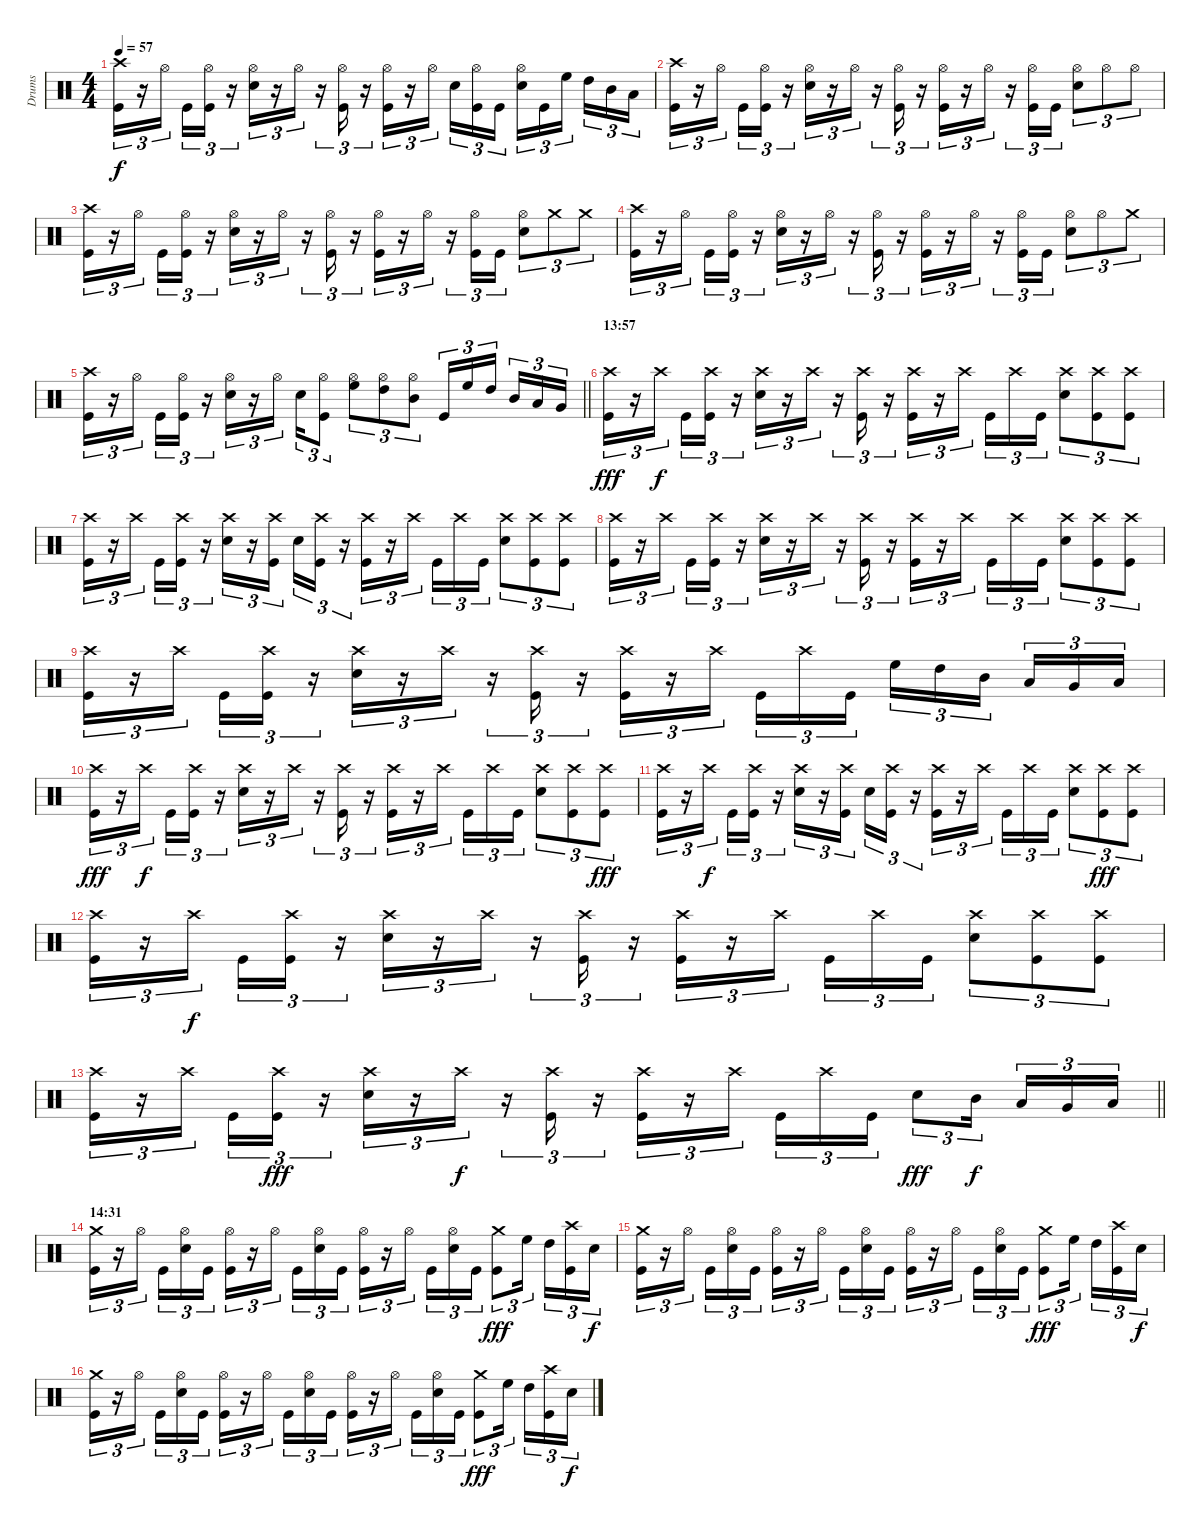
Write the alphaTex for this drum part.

\track ("Drums" "Drums") {instrument percussion}
\staff {score}
\articulation defaults
\ts (4 4)
\tempo 57
\clef neutral
\ks c
("Crash high (hit)" "Kick (hit)").16{tu (3 2) dy f} r.16{tu (3 2)} "Hi-Hat (open)".16{tu (3 2) beam splitsecondary} "Kick (hit)".16{tu (3 2)} ("Kick (hit)" "Hi-Hat (open)").16{tu (3 2)} r.16{tu (3 2)} ("Snare (hit) 2" "Hi-Hat (open)").16{tu (3 2)} r.16{tu (3 2)} "Hi-Hat (open)".16{tu (3 2)} r.16{tu (3 2)} ("Kick (hit)" "Hi-Hat (open)").16{tu (3 2)} r.16{tu (3 2)} ("Kick (hit)" "Hi-Hat (open)").16{tu (3 2)} r.16{tu (3 2)} "Hi-Hat (open)".16{tu (3 2) beam splitsecondary} "Snare (hit) 2".16{tu (3 2)} ("Hi-Hat (open)" "Kick (hit)").16{tu (3 2)} "Kick (hit)".16{tu (3 2)} ("Snare (hit) 2" "Hi-Hat (open)").16{tu (3 2)} "Kick (hit)".16{tu (3 2)} "High Floor Tom (hit)".16{tu (3 2) beam splitsecondary} "High Tom (hit)".16{tu (3 2)} "Mid Tom (hit)".16{tu (3 2)} "Low Tom (hit)".16{tu (3 2)} |
("Crash high (hit)" "Kick (hit)").16{tu (3 2)} r.16{tu (3 2)} "Hi-Hat (open)".16{tu (3 2) beam splitsecondary} "Kick (hit)".16{tu (3 2)} ("Kick (hit)" "Hi-Hat (open)").16{tu (3 2)} r.16{tu (3 2)} ("Snare (hit) 2" "Hi-Hat (open)").16{tu (3 2)} r.16{tu (3 2)} "Hi-Hat (open)".16{tu (3 2)} r.16{tu (3 2)} ("Kick (hit)" "Hi-Hat (open)").16{tu (3 2)} r.16{tu (3 2)} ("Kick (hit)" "Hi-Hat (open)").16{tu (3 2)} r.16{tu (3 2)} "Hi-Hat (open)".16{tu (3 2)} r.16{tu (3 2)} ("Hi-Hat (open)" "Kick (hit)").16{tu (3 2)} "Kick (hit)".16{tu (3 2)} ("Snare (hit) 2" "Hi-Hat (open)").8{tu (3 2)} "Hi-Hat (open)".8{tu (3 2)} "Hi-Hat (open)".8{tu (3 2)} |
("Crash high (hit)" "Kick (hit)").16{tu (3 2)} r.16{tu (3 2)} "Hi-Hat (open)".16{tu (3 2) beam splitsecondary} "Kick (hit)".16{tu (3 2)} ("Kick (hit)" "Hi-Hat (open)").16{tu (3 2)} r.16{tu (3 2)} ("Snare (hit) 2" "Hi-Hat (open)").16{tu (3 2)} r.16{tu (3 2)} "Hi-Hat (open)".16{tu (3 2)} r.16{tu (3 2)} ("Kick (hit)" "Hi-Hat (open)").16{tu (3 2)} r.16{tu (3 2)} ("Kick (hit)" "Hi-Hat (open)").16{tu (3 2)} r.16{tu (3 2)} "Hi-Hat (open)".16{tu (3 2)} r.16{tu (3 2)} ("Hi-Hat (open)" "Kick (hit)").16{tu (3 2)} "Kick (hit)".16{tu (3 2)} ("Snare (hit) 2" "Hi-Hat (open)").8{tu (3 2)} "Crash medium (hit)".8{tu (3 2)} "Crash medium (hit)".8{tu (3 2)} |
("Crash high (hit)" "Kick (hit)").16{tu (3 2)} r.16{tu (3 2)} "Hi-Hat (open)".16{tu (3 2) beam splitsecondary} "Kick (hit)".16{tu (3 2)} ("Kick (hit)" "Hi-Hat (open)").16{tu (3 2)} r.16{tu (3 2)} ("Snare (hit) 2" "Hi-Hat (open)").16{tu (3 2)} r.16{tu (3 2)} "Hi-Hat (open)".16{tu (3 2)} r.16{tu (3 2)} ("Kick (hit)" "Hi-Hat (open)").16{tu (3 2)} r.16{tu (3 2)} ("Kick (hit)" "Hi-Hat (open)").16{tu (3 2)} r.16{tu (3 2)} "Hi-Hat (open)".16{tu (3 2)} r.16{tu (3 2)} ("Hi-Hat (open)" "Kick (hit)").16{tu (3 2)} "Kick (hit)".16{tu (3 2)} ("Snare (hit) 2" "Hi-Hat (open)").8{tu (3 2)} "Hi-Hat (open)".8{tu (3 2)} "Crash medium (hit)".8{tu (3 2)} |
\barLineRight lightlight
("Crash high (hit)" "Kick (hit)").16{tu (3 2)} r.16{tu (3 2)} "Hi-Hat (open)".16{tu (3 2) beam splitsecondary} "Kick (hit)".16{tu (3 2)} ("Kick (hit)" "Hi-Hat (open)").16{tu (3 2)} r.16{tu (3 2)} ("Snare (hit) 2" "Hi-Hat (open)").16{tu (3 2)} r.16{tu (3 2)} "Hi-Hat (open)".16{tu (3 2) beam splitsecondary} "Snare (hit) 2".16{tu (3 2)} ("Kick (hit)" "Hi-Hat (open)").8{tu (3 2)} ("High Floor Tom (hit)" "Hi-Hat (open)").8{tu (3 2)} ("High Tom (hit)" "Hi-Hat (open)").8{tu (3 2)} ("Mid Tom (hit)" "Hi-Hat (open)").8{tu (3 2)} "Kick (hit)".16{tu (3 2)} "High Floor Tom (hit)".16{tu (3 2)} "High Tom (hit)".16{tu (3 2) beam splitsecondary} "Mid Tom (hit)".16{tu (3 2)} "Low Tom (hit)".16{tu (3 2)} "Very Low Tom (hit)".16{tu (3 2)} |
\section ("" "13:57")
("Crash high (hit)" "Kick (hit)").16{tu (3 2) dy fff} r.16{tu (3 2)} "Crash high (hit)".16{tu (3 2) dy f beam splitsecondary} "Kick (hit)".16{tu (3 2)} ("Kick (hit)" "Crash high (hit)").16{tu (3 2)} r.16{tu (3 2)} ("Snare (hit) 2" "Crash high (hit)").16{tu (3 2)} r.16{tu (3 2)} "Crash high (hit)".16{tu (3 2)} r.16{tu (3 2)} ("Kick (hit)" "Crash high (hit)").16{tu (3 2)} r.16{tu (3 2)} ("Kick (hit)" "Crash high (hit)").16{tu (3 2)} r.16{tu (3 2)} "Crash high (hit)".16{tu (3 2) beam splitsecondary} "Kick (hit)".16{tu (3 2)} "Crash high (hit)".16{tu (3 2)} "Kick (hit)".16{tu (3 2)} ("Snare (hit) 2" "Crash high (hit)").8{tu (3 2)} ("Kick (hit)" "Crash high (hit)").8{tu (3 2)} ("Kick (hit)" "Crash high (hit)").8{tu (3 2)} |
("Crash high (hit)" "Kick (hit)").16{tu (3 2)} r.16{tu (3 2)} "Crash high (hit)".16{tu (3 2) beam splitsecondary} "Kick (hit)".16{tu (3 2)} ("Kick (hit)" "Crash high (hit)").16{tu (3 2)} r.16{tu (3 2)} ("Snare (hit) 2" "Crash high (hit)").16{tu (3 2)} r.16{tu (3 2)} ("Kick (hit)" "Crash high (hit)").16{tu (3 2) beam splitsecondary} "Snare (hit) 2".16{tu (3 2)} ("Kick (hit)" "Crash high (hit)").16{tu (3 2)} r.16{tu (3 2)} ("Kick (hit)" "Crash high (hit)").16{tu (3 2)} r.16{tu (3 2)} "Crash high (hit)".16{tu (3 2) beam splitsecondary} "Kick (hit)".16{tu (3 2)} "Crash high (hit)".16{tu (3 2)} "Kick (hit)".16{tu (3 2)} ("Snare (hit) 2" "Crash high (hit)").8{tu (3 2)} ("Kick (hit)" "Crash high (hit)").8{tu (3 2)} ("Kick (hit)" "Crash high (hit)").8{tu (3 2)} |
("Crash high (hit)" "Kick (hit)").16{tu (3 2)} r.16{tu (3 2)} "Crash high (hit)".16{tu (3 2) beam splitsecondary} "Kick (hit)".16{tu (3 2)} ("Kick (hit)" "Crash high (hit)").16{tu (3 2)} r.16{tu (3 2)} ("Snare (hit) 2" "Crash high (hit)").16{tu (3 2)} r.16{tu (3 2)} "Crash high (hit)".16{tu (3 2)} r.16{tu (3 2)} ("Kick (hit)" "Crash high (hit)").16{tu (3 2)} r.16{tu (3 2)} ("Kick (hit)" "Crash high (hit)").16{tu (3 2)} r.16{tu (3 2)} "Crash high (hit)".16{tu (3 2) beam splitsecondary} "Kick (hit)".16{tu (3 2)} "Crash high (hit)".16{tu (3 2)} "Kick (hit)".16{tu (3 2)} ("Snare (hit) 2" "Crash high (hit)").8{tu (3 2)} ("Kick (hit)" "Crash high (hit)").8{tu (3 2)} ("Kick (hit)" "Crash high (hit)").8{tu (3 2)} |
("Crash high (hit)" "Kick (hit)").16{tu (3 2)} r.16{tu (3 2)} "Crash high (hit)".16{tu (3 2) beam splitsecondary} "Kick (hit)".16{tu (3 2)} ("Kick (hit)" "Crash high (hit)").16{tu (3 2)} r.16{tu (3 2)} ("Snare (hit) 2" "Crash high (hit)").16{tu (3 2)} r.16{tu (3 2)} "Crash high (hit)".16{tu (3 2)} r.16{tu (3 2)} ("Kick (hit)" "Crash high (hit)").16{tu (3 2)} r.16{tu (3 2)} ("Kick (hit)" "Crash high (hit)").16{tu (3 2)} r.16{tu (3 2)} "Crash high (hit)".16{tu (3 2) beam splitsecondary} "Kick (hit)".16{tu (3 2)} "Crash high (hit)".16{tu (3 2)} "Kick (hit)".16{tu (3 2)} "High Floor Tom (hit)".16{tu (3 2)} "High Tom (hit)".16{tu (3 2)} "Mid Tom (hit)".16{tu (3 2) beam splitsecondary} "Low Tom (hit)".16{tu (3 2)} "Very Low Tom (hit)".16{tu (3 2)} "Low Floor Tom (hit)".16{tu (3 2)} |
("Crash high (hit)" "Kick (hit)").16{tu (3 2) dy fff} r.16{tu (3 2)} "Crash high (hit)".16{tu (3 2) dy f beam splitsecondary} "Kick (hit)".16{tu (3 2)} ("Kick (hit)" "Crash high (hit)").16{tu (3 2)} r.16{tu (3 2)} ("Snare (hit) 2" "Crash high (hit)").16{tu (3 2)} r.16{tu (3 2)} "Crash high (hit)".16{tu (3 2)} r.16{tu (3 2)} ("Kick (hit)" "Crash high (hit)").16{tu (3 2)} r.16{tu (3 2)} ("Kick (hit)" "Crash high (hit)").16{tu (3 2)} r.16{tu (3 2)} "Crash high (hit)".16{tu (3 2) beam splitsecondary} "Kick (hit)".16{tu (3 2)} "Crash high (hit)".16{tu (3 2)} "Kick (hit)".16{tu (3 2)} ("Snare (hit) 2" "Crash high (hit)").8{tu (3 2)} ("Kick (hit)" "Crash high (hit)").8{tu (3 2)} ("Kick (hit)" "Crash high (hit)").8{tu (3 2) dy fff} |
("Crash high (hit)" "Kick (hit)").16{tu (3 2)} r.16{tu (3 2)} "Crash high (hit)".16{tu (3 2) dy f beam splitsecondary} "Kick (hit)".16{tu (3 2)} ("Kick (hit)" "Crash high (hit)").16{tu (3 2)} r.16{tu (3 2)} ("Snare (hit) 2" "Crash high (hit)").16{tu (3 2)} r.16{tu (3 2)} ("Kick (hit)" "Crash high (hit)").16{tu (3 2) beam splitsecondary} "Snare (hit) 2".16{tu (3 2)} ("Kick (hit)" "Crash high (hit)").16{tu (3 2)} r.16{tu (3 2)} ("Kick (hit)" "Crash high (hit)").16{tu (3 2)} r.16{tu (3 2)} "Crash high (hit)".16{tu (3 2) beam splitsecondary} "Kick (hit)".16{tu (3 2)} "Crash high (hit)".16{tu (3 2)} "Kick (hit)".16{tu (3 2)} ("Snare (hit) 2" "Crash high (hit)").8{tu (3 2)} ("Kick (hit)" "Crash high (hit)").8{tu (3 2) dy fff} ("Kick (hit)" "Crash high (hit)").8{tu (3 2)} |
("Crash high (hit)" "Kick (hit)").16{tu (3 2)} r.16{tu (3 2)} "Crash high (hit)".16{tu (3 2) dy f beam splitsecondary} "Kick (hit)".16{tu (3 2)} ("Kick (hit)" "Crash high (hit)").16{tu (3 2)} r.16{tu (3 2)} ("Snare (hit) 2" "Crash high (hit)").16{tu (3 2)} r.16{tu (3 2)} "Crash high (hit)".16{tu (3 2)} r.16{tu (3 2)} ("Kick (hit)" "Crash high (hit)").16{tu (3 2)} r.16{tu (3 2)} ("Kick (hit)" "Crash high (hit)").16{tu (3 2)} r.16{tu (3 2)} "Crash high (hit)".16{tu (3 2) beam splitsecondary} "Kick (hit)".16{tu (3 2)} "Crash high (hit)".16{tu (3 2)} "Kick (hit)".16{tu (3 2)} ("Snare (hit) 2" "Crash high (hit)").8{tu (3 2)} ("Kick (hit)" "Crash high (hit)").8{tu (3 2)} ("Kick (hit)" "Crash high (hit)").8{tu (3 2)} |
\barLineRight lightlight
("Crash high (hit)" "Kick (hit)").16{tu (3 2)} r.16{tu (3 2)} "Crash high (hit)".16{tu (3 2) beam splitsecondary} "Kick (hit)".16{tu (3 2)} ("Kick (hit)" "Crash high (hit)").16{tu (3 2) dy fff} r.16{tu (3 2)} ("Snare (hit) 2" "Crash high (hit)").16{tu (3 2)} r.16{tu (3 2)} "Crash high (hit)".16{tu (3 2) dy f} r.16{tu (3 2)} ("Kick (hit)" "Crash high (hit)").16{tu (3 2)} r.16{tu (3 2)} ("Kick (hit)" "Crash high (hit)").16{tu (3 2)} r.16{tu (3 2)} "Crash high (hit)".16{tu (3 2) beam splitsecondary} "Kick (hit)".16{tu (3 2)} "Crash high (hit)".16{tu (3 2)} "Kick (hit)".16{tu (3 2)} "Snare (hit) 2".8{tu (3 2) dy fff} "Mid Tom (hit)".16{tu (3 2) dy f beam splitsecondary} "Low Tom (hit)".16{tu (3 2)} "Very Low Tom (hit)".16{tu (3 2)} "Low Floor Tom (hit)".16{tu (3 2)} |
\section ("" "14:31")
("Kick (hit)" "Crash medium (hit)").16{tu (3 2)} r.16{tu (3 2)} "Hi-Hat (open)".16{tu (3 2) beam splitsecondary} "Kick (hit)".16{tu (3 2)} ("Snare (hit) 2" "Hi-Hat (open)").16{tu (3 2)} "Kick (hit)".16{tu (3 2)} ("Kick (hit)" "Hi-Hat (open)").16{tu (3 2)} r.16{tu (3 2)} "Hi-Hat (open)".16{tu (3 2) beam splitsecondary} "Kick (hit)".16{tu (3 2)} ("Snare (hit) 2" "Hi-Hat (open)").16{tu (3 2)} "Kick (hit)".16{tu (3 2)} ("Kick (hit)" "Hi-Hat (open)").16{tu (3 2)} r.16{tu (3 2)} "Hi-Hat (open)".16{tu (3 2) beam splitsecondary} "Kick (hit)".16{tu (3 2)} ("Snare (hit) 2" "Hi-Hat (open)").16{tu (3 2)} "Kick (hit)".16{tu (3 2)} ("Kick (hit)" "Crash medium (hit)").8{tu (3 2) dy fff} "High Floor Tom (hit)".16{tu (3 2) beam splitsecondary} "High Tom (hit)".16{tu (3 2)} ("Kick (hit)" "Crash high (hit)").16{tu (3 2)} "Snare (hit) 2".16{tu (3 2) dy f} |
("Kick (hit)" "Crash medium (hit)").16{tu (3 2)} r.16{tu (3 2)} "Hi-Hat (open)".16{tu (3 2) beam splitsecondary} "Kick (hit)".16{tu (3 2)} ("Snare (hit) 2" "Hi-Hat (open)").16{tu (3 2)} "Kick (hit)".16{tu (3 2)} ("Kick (hit)" "Hi-Hat (open)").16{tu (3 2)} r.16{tu (3 2)} "Hi-Hat (open)".16{tu (3 2) beam splitsecondary} "Kick (hit)".16{tu (3 2)} ("Snare (hit) 2" "Hi-Hat (open)").16{tu (3 2)} "Kick (hit)".16{tu (3 2)} ("Kick (hit)" "Hi-Hat (open)").16{tu (3 2)} r.16{tu (3 2)} "Hi-Hat (open)".16{tu (3 2) beam splitsecondary} "Kick (hit)".16{tu (3 2)} ("Snare (hit) 2" "Hi-Hat (open)").16{tu (3 2)} "Kick (hit)".16{tu (3 2)} ("Kick (hit)" "Crash medium (hit)").8{tu (3 2) dy fff} "High Floor Tom (hit)".16{tu (3 2) beam splitsecondary} "High Tom (hit)".16{tu (3 2)} ("Kick (hit)" "Crash high (hit)").16{tu (3 2)} "Snare (hit) 2".16{tu (3 2) dy f} |
("Kick (hit)" "Crash medium (hit)").16{tu (3 2)} r.16{tu (3 2)} "Hi-Hat (open)".16{tu (3 2) beam splitsecondary} "Kick (hit)".16{tu (3 2)} ("Snare (hit) 2" "Hi-Hat (open)").16{tu (3 2)} "Kick (hit)".16{tu (3 2)} ("Kick (hit)" "Hi-Hat (open)").16{tu (3 2)} r.16{tu (3 2)} "Hi-Hat (open)".16{tu (3 2) beam splitsecondary} "Kick (hit)".16{tu (3 2)} ("Snare (hit) 2" "Hi-Hat (open)").16{tu (3 2)} "Kick (hit)".16{tu (3 2)} ("Kick (hit)" "Hi-Hat (open)").16{tu (3 2)} r.16{tu (3 2)} "Hi-Hat (open)".16{tu (3 2) beam splitsecondary} "Kick (hit)".16{tu (3 2)} ("Snare (hit) 2" "Hi-Hat (open)").16{tu (3 2)} "Kick (hit)".16{tu (3 2)} ("Kick (hit)" "Crash medium (hit)").8{tu (3 2) dy fff} "High Floor Tom (hit)".16{tu (3 2) beam splitsecondary} "High Tom (hit)".16{tu (3 2)} ("Kick (hit)" "Crash high (hit)").16{tu (3 2)} "Snare (hit) 2".16{tu (3 2) dy f}
